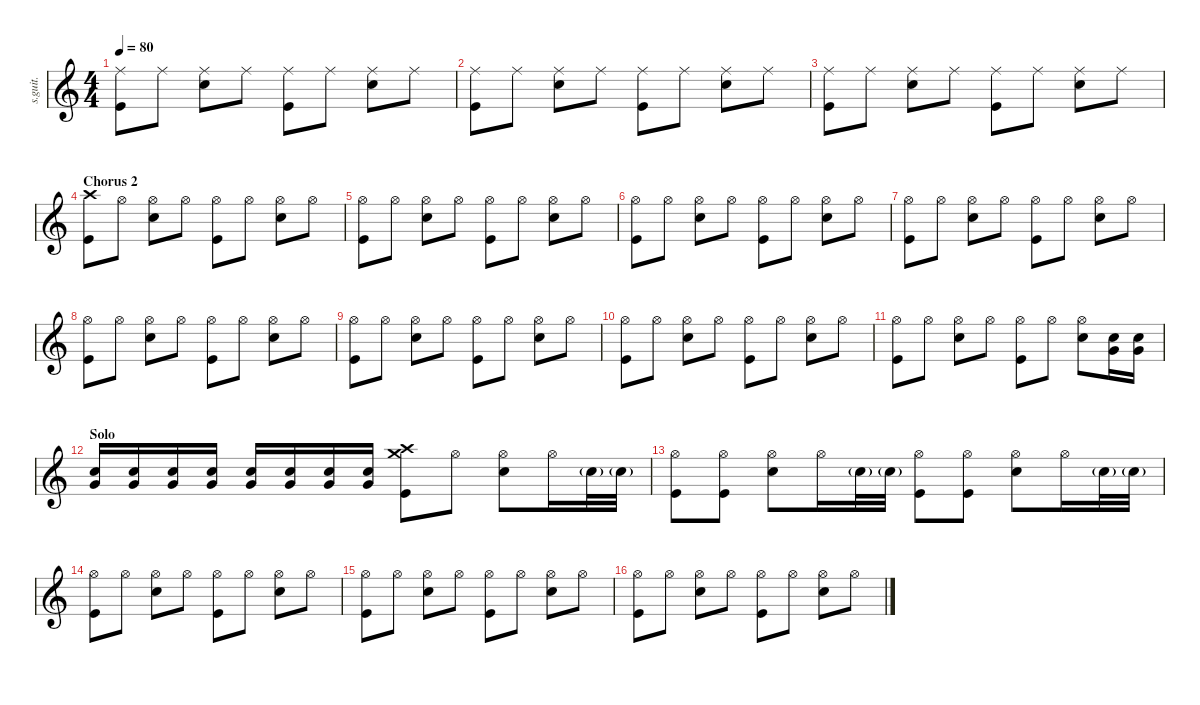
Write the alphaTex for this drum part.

\defaultSystemsLayout 4
\hideDynamics
\bracketExtendMode nobrackets
\track ("Drums (Wilson)" "s.guit.") {instrument percussion}
\staff {score}
\articulation defaults
\ts (4 4)
\tempo 80
\clef g2
\ks c
("Ride (middle)" "Kick (hit)").8{lyrics (0 "") lyrics (1 "") lyrics (2 "") lyrics (3 "") lyrics (4 "") dy f} "Ride (middle)".8{lyrics (0 "") lyrics (1 "") lyrics (2 "") lyrics (3 "") lyrics (4 "")} ("Ride (middle)" "Snare (hit) 2").8{lyrics (0 "") lyrics (1 "") lyrics (2 "") lyrics (3 "") lyrics (4 "")} "Ride (middle)".8{lyrics (0 "") lyrics (1 "") lyrics (2 "") lyrics (3 "") lyrics (4 "")} ("Ride (middle)" "Kick (hit)").8{lyrics (0 "") lyrics (1 "") lyrics (2 "") lyrics (3 "") lyrics (4 "")} "Ride (middle)".8{lyrics (0 "") lyrics (1 "") lyrics (2 "") lyrics (3 "") lyrics (4 "")} ("Ride (middle)" "Snare (hit) 2").8{lyrics (0 "") lyrics (1 "") lyrics (2 "") lyrics (3 "") lyrics (4 "")} "Ride (middle)".8{lyrics (0 "") lyrics (1 "") lyrics (2 "") lyrics (3 "") lyrics (4 "")} |
("Ride (middle)" "Kick (hit)").8{lyrics (0 "") lyrics (1 "") lyrics (2 "") lyrics (3 "") lyrics (4 "")} "Ride (middle)".8{lyrics (0 "") lyrics (1 "") lyrics (2 "") lyrics (3 "") lyrics (4 "")} ("Ride (middle)" "Snare (hit) 2").8{lyrics (0 "") lyrics (1 "") lyrics (2 "") lyrics (3 "") lyrics (4 "")} "Ride (middle)".8{lyrics (0 "") lyrics (1 "") lyrics (2 "") lyrics (3 "") lyrics (4 "")} ("Ride (middle)" "Kick (hit)").8{lyrics (0 "") lyrics (1 "") lyrics (2 "") lyrics (3 "") lyrics (4 "")} "Ride (middle)".8{lyrics (0 "") lyrics (1 "") lyrics (2 "") lyrics (3 "") lyrics (4 "")} ("Ride (middle)" "Snare (hit) 2").8{lyrics (0 "") lyrics (1 "") lyrics (2 "") lyrics (3 "") lyrics (4 "")} "Ride (middle)".8{lyrics (0 "") lyrics (1 "") lyrics (2 "") lyrics (3 "") lyrics (4 "")} |
("Ride (middle)" "Kick (hit)").8{lyrics (0 "") lyrics (1 "") lyrics (2 "") lyrics (3 "") lyrics (4 "")} "Ride (middle)".8{lyrics (0 "") lyrics (1 "") lyrics (2 "") lyrics (3 "") lyrics (4 "")} ("Ride (middle)" "Snare (hit) 2").8{lyrics (0 "") lyrics (1 "") lyrics (2 "") lyrics (3 "") lyrics (4 "")} "Ride (middle)".8{lyrics (0 "") lyrics (1 "") lyrics (2 "") lyrics (3 "") lyrics (4 "")} ("Ride (middle)" "Kick (hit)").8{lyrics (0 "") lyrics (1 "") lyrics (2 "") lyrics (3 "") lyrics (4 "")} "Ride (middle)".8{lyrics (0 "") lyrics (1 "") lyrics (2 "") lyrics (3 "") lyrics (4 "")} ("Ride (middle)" "Snare (hit) 2").8{lyrics (0 "") lyrics (1 "") lyrics (2 "") lyrics (3 "") lyrics (4 "")} "Ride (middle)".8{lyrics (0 "") lyrics (1 "") lyrics (2 "") lyrics (3 "") lyrics (4 "")} |
\section ("" "Chorus 2")
("Crash high (hit)" "Kick (hit)").8{lyrics (0 "") lyrics (1 "") lyrics (2 "") lyrics (3 "") lyrics (4 "")} "Hi-Hat (open)".8{lyrics (0 "") lyrics (1 "") lyrics (2 "") lyrics (3 "") lyrics (4 "")} ("Hi-Hat (open)" "Snare (hit) 2").8{lyrics (0 "") lyrics (1 "") lyrics (2 "") lyrics (3 "") lyrics (4 "")} "Hi-Hat (open)".8{lyrics (0 "") lyrics (1 "") lyrics (2 "") lyrics (3 "") lyrics (4 "")} ("Hi-Hat (open)" "Kick (hit)").8{lyrics (0 "") lyrics (1 "") lyrics (2 "") lyrics (3 "") lyrics (4 "")} "Hi-Hat (open)".8{lyrics (0 "") lyrics (1 "") lyrics (2 "") lyrics (3 "") lyrics (4 "")} ("Hi-Hat (open)" "Snare (hit) 2").8{lyrics (0 "") lyrics (1 "") lyrics (2 "") lyrics (3 "") lyrics (4 "")} "Hi-Hat (open)".8{lyrics (0 "") lyrics (1 "") lyrics (2 "") lyrics (3 "") lyrics (4 "")} |
("Hi-Hat (open)" "Kick (hit)").8{lyrics (0 "") lyrics (1 "") lyrics (2 "") lyrics (3 "") lyrics (4 "")} "Hi-Hat (open)".8{lyrics (0 "") lyrics (1 "") lyrics (2 "") lyrics (3 "") lyrics (4 "")} ("Hi-Hat (open)" "Snare (hit) 2").8{lyrics (0 "") lyrics (1 "") lyrics (2 "") lyrics (3 "") lyrics (4 "")} "Hi-Hat (open)".8{lyrics (0 "") lyrics (1 "") lyrics (2 "") lyrics (3 "") lyrics (4 "")} ("Hi-Hat (open)" "Kick (hit)").8{lyrics (0 "") lyrics (1 "") lyrics (2 "") lyrics (3 "") lyrics (4 "")} "Hi-Hat (open)".8{lyrics (0 "") lyrics (1 "") lyrics (2 "") lyrics (3 "") lyrics (4 "")} ("Hi-Hat (open)" "Snare (hit) 2").8{lyrics (0 "") lyrics (1 "") lyrics (2 "") lyrics (3 "") lyrics (4 "")} "Hi-Hat (open)".8{lyrics (0 "") lyrics (1 "") lyrics (2 "") lyrics (3 "") lyrics (4 "")} |
("Hi-Hat (open)" "Kick (hit)").8{lyrics (0 "") lyrics (1 "") lyrics (2 "") lyrics (3 "") lyrics (4 "")} "Hi-Hat (open)".8{lyrics (0 "") lyrics (1 "") lyrics (2 "") lyrics (3 "") lyrics (4 "")} ("Hi-Hat (open)" "Snare (hit) 2").8{lyrics (0 "") lyrics (1 "") lyrics (2 "") lyrics (3 "") lyrics (4 "")} "Hi-Hat (open)".8{lyrics (0 "") lyrics (1 "") lyrics (2 "") lyrics (3 "") lyrics (4 "")} ("Hi-Hat (open)" "Kick (hit)").8{lyrics (0 "") lyrics (1 "") lyrics (2 "") lyrics (3 "") lyrics (4 "")} "Hi-Hat (open)".8{lyrics (0 "") lyrics (1 "") lyrics (2 "") lyrics (3 "") lyrics (4 "")} ("Hi-Hat (open)" "Snare (hit) 2").8{lyrics (0 "") lyrics (1 "") lyrics (2 "") lyrics (3 "") lyrics (4 "")} "Hi-Hat (open)".8{lyrics (0 "") lyrics (1 "") lyrics (2 "") lyrics (3 "") lyrics (4 "")} |
("Hi-Hat (open)" "Kick (hit)").8{lyrics (0 "") lyrics (1 "") lyrics (2 "") lyrics (3 "") lyrics (4 "")} "Hi-Hat (open)".8{lyrics (0 "") lyrics (1 "") lyrics (2 "") lyrics (3 "") lyrics (4 "")} ("Hi-Hat (open)" "Snare (hit) 2").8{lyrics (0 "") lyrics (1 "") lyrics (2 "") lyrics (3 "") lyrics (4 "")} "Hi-Hat (open)".8{lyrics (0 "") lyrics (1 "") lyrics (2 "") lyrics (3 "") lyrics (4 "")} ("Hi-Hat (open)" "Kick (hit)").8{lyrics (0 "") lyrics (1 "") lyrics (2 "") lyrics (3 "") lyrics (4 "")} "Hi-Hat (open)".8{lyrics (0 "") lyrics (1 "") lyrics (2 "") lyrics (3 "") lyrics (4 "")} ("Hi-Hat (open)" "Snare (hit) 2").8{lyrics (0 "") lyrics (1 "") lyrics (2 "") lyrics (3 "") lyrics (4 "")} "Hi-Hat (open)".8{lyrics (0 "") lyrics (1 "") lyrics (2 "") lyrics (3 "") lyrics (4 "")} |
("Hi-Hat (open)" "Kick (hit)").8{lyrics (0 "") lyrics (1 "") lyrics (2 "") lyrics (3 "") lyrics (4 "")} "Hi-Hat (open)".8{lyrics (0 "") lyrics (1 "") lyrics (2 "") lyrics (3 "") lyrics (4 "")} ("Hi-Hat (open)" "Snare (hit) 2").8{lyrics (0 "") lyrics (1 "") lyrics (2 "") lyrics (3 "") lyrics (4 "")} "Hi-Hat (open)".8{lyrics (0 "") lyrics (1 "") lyrics (2 "") lyrics (3 "") lyrics (4 "")} ("Hi-Hat (open)" "Kick (hit)").8{lyrics (0 "") lyrics (1 "") lyrics (2 "") lyrics (3 "") lyrics (4 "")} "Hi-Hat (open)".8{lyrics (0 "") lyrics (1 "") lyrics (2 "") lyrics (3 "") lyrics (4 "")} ("Hi-Hat (open)" "Snare (hit) 2").8{lyrics (0 "") lyrics (1 "") lyrics (2 "") lyrics (3 "") lyrics (4 "")} "Hi-Hat (open)".8{lyrics (0 "") lyrics (1 "") lyrics (2 "") lyrics (3 "") lyrics (4 "")} |
("Hi-Hat (open)" "Kick (hit)").8{lyrics (0 "") lyrics (1 "") lyrics (2 "") lyrics (3 "") lyrics (4 "")} "Hi-Hat (open)".8{lyrics (0 "") lyrics (1 "") lyrics (2 "") lyrics (3 "") lyrics (4 "")} ("Hi-Hat (open)" "Snare (hit) 2").8{lyrics (0 "") lyrics (1 "") lyrics (2 "") lyrics (3 "") lyrics (4 "")} "Hi-Hat (open)".8{lyrics (0 "") lyrics (1 "") lyrics (2 "") lyrics (3 "") lyrics (4 "")} ("Hi-Hat (open)" "Kick (hit)").8{lyrics (0 "") lyrics (1 "") lyrics (2 "") lyrics (3 "") lyrics (4 "")} "Hi-Hat (open)".8{lyrics (0 "") lyrics (1 "") lyrics (2 "") lyrics (3 "") lyrics (4 "")} ("Hi-Hat (open)" "Snare (hit) 2").8{lyrics (0 "") lyrics (1 "") lyrics (2 "") lyrics (3 "") lyrics (4 "")} "Hi-Hat (open)".8{lyrics (0 "") lyrics (1 "") lyrics (2 "") lyrics (3 "") lyrics (4 "")} |
("Hi-Hat (open)" "Kick (hit)").8{lyrics (0 "") lyrics (1 "") lyrics (2 "") lyrics (3 "") lyrics (4 "")} "Hi-Hat (open)".8{lyrics (0 "") lyrics (1 "") lyrics (2 "") lyrics (3 "") lyrics (4 "")} ("Hi-Hat (open)" "Snare (hit) 2").8{lyrics (0 "") lyrics (1 "") lyrics (2 "") lyrics (3 "") lyrics (4 "")} "Hi-Hat (open)".8{lyrics (0 "") lyrics (1 "") lyrics (2 "") lyrics (3 "") lyrics (4 "")} ("Hi-Hat (open)" "Kick (hit)").8{lyrics (0 "") lyrics (1 "") lyrics (2 "") lyrics (3 "") lyrics (4 "")} "Hi-Hat (open)".8{lyrics (0 "") lyrics (1 "") lyrics (2 "") lyrics (3 "") lyrics (4 "")} ("Hi-Hat (open)" "Snare (hit) 2").8{lyrics (0 "") lyrics (1 "") lyrics (2 "") lyrics (3 "") lyrics (4 "")} "Hi-Hat (open)".8{lyrics (0 "") lyrics (1 "") lyrics (2 "") lyrics (3 "") lyrics (4 "")} |
("Hi-Hat (open)" "Kick (hit)").8{lyrics (0 "") lyrics (1 "") lyrics (2 "") lyrics (3 "") lyrics (4 "")} "Hi-Hat (open)".8{lyrics (0 "") lyrics (1 "") lyrics (2 "") lyrics (3 "") lyrics (4 "")} ("Hi-Hat (open)" "Snare (hit) 2").8{lyrics (0 "") lyrics (1 "") lyrics (2 "") lyrics (3 "") lyrics (4 "")} "Hi-Hat (open)".8{lyrics (0 "") lyrics (1 "") lyrics (2 "") lyrics (3 "") lyrics (4 "")} ("Hi-Hat (open)" "Kick (hit)").8{lyrics (0 "") lyrics (1 "") lyrics (2 "") lyrics (3 "") lyrics (4 "")} "Hi-Hat (open)".8{lyrics (0 "") lyrics (1 "") lyrics (2 "") lyrics (3 "") lyrics (4 "")} ("Hi-Hat (open)" "Snare (hit) 2").8{lyrics (0 "") lyrics (1 "") lyrics (2 "") lyrics (3 "") lyrics (4 "")} ("Very Low Tom (hit)" "Snare (hit) 2").16{lyrics (0 "") lyrics (1 "") lyrics (2 "") lyrics (3 "") lyrics (4 "") dy p} ("Very Low Tom (hit)" "Snare (hit) 2").16{lyrics (0 "") lyrics (1 "") lyrics (2 "") lyrics (3 "") lyrics (4 "")} |
\section ("" "Solo")
("Very Low Tom (hit)" "Snare (hit) 2").16{lyrics (0 "") lyrics (1 "") lyrics (2 "") lyrics (3 "") lyrics (4 "") dy mp} ("Very Low Tom (hit)" "Snare (hit) 2").16{lyrics (0 "") lyrics (1 "") lyrics (2 "") lyrics (3 "") lyrics (4 "")} ("Very Low Tom (hit)" "Snare (hit) 2").16{lyrics (0 "") lyrics (1 "") lyrics (2 "") lyrics (3 "") lyrics (4 "")} ("Very Low Tom (hit)" "Snare (hit) 2").16{lyrics (0 "") lyrics (1 "") lyrics (2 "") lyrics (3 "") lyrics (4 "")} ("Very Low Tom (hit)" "Snare (hit) 2").16{lyrics (0 "") lyrics (1 "") lyrics (2 "") lyrics (3 "") lyrics (4 "") dy mf} ("Very Low Tom (hit)" "Snare (hit) 2").16{lyrics (0 "") lyrics (1 "") lyrics (2 "") lyrics (3 "") lyrics (4 "")} ("Very Low Tom (hit)" "Snare (hit) 2").16{lyrics (0 "") lyrics (1 "") lyrics (2 "") lyrics (3 "") lyrics (4 "") dy f} ("Very Low Tom (hit)" "Snare (hit) 2").16{lyrics (0 "") lyrics (1 "") lyrics (2 "") lyrics (3 "") lyrics (4 "")} ("Crash medium (hit)" "Crash high (hit)" "Kick (hit)").8{lyrics (0 "") lyrics (1 "") lyrics (2 "") lyrics (3 "") lyrics (4 "")} "Hi-Hat (open)".8{lyrics (0 "") lyrics (1 "") lyrics (2 "") lyrics (3 "") lyrics (4 "")} ("Hi-Hat (open)" "Snare (hit) 2").8{lyrics (0 "") lyrics (1 "") lyrics (2 "") lyrics (3 "") lyrics (4 "")} "Hi-Hat (open)".16{lyrics (0 "") lyrics (1 "") lyrics (2 "") lyrics (3 "") lyrics (4 "")} "Snare (hit) 2"{g}.32{lyrics (0 "") lyrics (1 "") lyrics (2 "") lyrics (3 "") lyrics (4 "") dy pp} "Snare (hit) 2"{g}.32{lyrics (0 "") lyrics (1 "") lyrics (2 "") lyrics (3 "") lyrics (4 "")} |
("Hi-Hat (open)" "Kick (hit)").8{lyrics (0 "") lyrics (1 "") lyrics (2 "") lyrics (3 "") lyrics (4 "") dy f} ("Hi-Hat (open)" "Kick (hit)").8{lyrics (0 "") lyrics (1 "") lyrics (2 "") lyrics (3 "") lyrics (4 "")} ("Hi-Hat (open)" "Snare (hit) 2").8{lyrics (0 "") lyrics (1 "") lyrics (2 "") lyrics (3 "") lyrics (4 "")} "Hi-Hat (open)".16{lyrics (0 "") lyrics (1 "") lyrics (2 "") lyrics (3 "") lyrics (4 "")} "Snare (hit) 2"{g}.32{lyrics (0 "") lyrics (1 "") lyrics (2 "") lyrics (3 "") lyrics (4 "") dy pp} "Snare (hit) 2"{g}.32{lyrics (0 "") lyrics (1 "") lyrics (2 "") lyrics (3 "") lyrics (4 "")} ("Hi-Hat (open)" "Kick (hit)").8{lyrics (0 "") lyrics (1 "") lyrics (2 "") lyrics (3 "") lyrics (4 "") dy f} ("Hi-Hat (open)" "Kick (hit)").8{lyrics (0 "") lyrics (1 "") lyrics (2 "") lyrics (3 "") lyrics (4 "")} ("Hi-Hat (open)" "Snare (hit) 2").8{lyrics (0 "") lyrics (1 "") lyrics (2 "") lyrics (3 "") lyrics (4 "")} "Hi-Hat (open)".16{lyrics (0 "") lyrics (1 "") lyrics (2 "") lyrics (3 "") lyrics (4 "")} "Snare (hit) 2"{g}.32{lyrics (0 "") lyrics (1 "") lyrics (2 "") lyrics (3 "") lyrics (4 "") dy pp} "Snare (hit) 2"{g}.32{lyrics (0 "") lyrics (1 "") lyrics (2 "") lyrics (3 "") lyrics (4 "")} |
("Hi-Hat (open)" "Kick (hit)").8{lyrics (0 "") lyrics (1 "") lyrics (2 "") lyrics (3 "") lyrics (4 "") dy f} "Hi-Hat (open)".8{lyrics (0 "") lyrics (1 "") lyrics (2 "") lyrics (3 "") lyrics (4 "")} ("Hi-Hat (open)" "Snare (hit) 2").8{lyrics (0 "") lyrics (1 "") lyrics (2 "") lyrics (3 "") lyrics (4 "")} "Hi-Hat (open)".8{lyrics (0 "") lyrics (1 "") lyrics (2 "") lyrics (3 "") lyrics (4 "")} ("Hi-Hat (open)" "Kick (hit)").8{lyrics (0 "") lyrics (1 "") lyrics (2 "") lyrics (3 "") lyrics (4 "")} "Hi-Hat (open)".8{lyrics (0 "") lyrics (1 "") lyrics (2 "") lyrics (3 "") lyrics (4 "")} ("Hi-Hat (open)" "Snare (hit) 2").8{lyrics (0 "") lyrics (1 "") lyrics (2 "") lyrics (3 "") lyrics (4 "")} "Hi-Hat (open)".8{lyrics (0 "") lyrics (1 "") lyrics (2 "") lyrics (3 "") lyrics (4 "")} |
("Hi-Hat (open)" "Kick (hit)").8{lyrics (0 "") lyrics (1 "") lyrics (2 "") lyrics (3 "") lyrics (4 "")} "Hi-Hat (open)".8{lyrics (0 "") lyrics (1 "") lyrics (2 "") lyrics (3 "") lyrics (4 "")} ("Hi-Hat (open)" "Snare (hit) 2").8{lyrics (0 "") lyrics (1 "") lyrics (2 "") lyrics (3 "") lyrics (4 "")} "Hi-Hat (open)".8{lyrics (0 "") lyrics (1 "") lyrics (2 "") lyrics (3 "") lyrics (4 "")} ("Hi-Hat (open)" "Kick (hit)").8{lyrics (0 "") lyrics (1 "") lyrics (2 "") lyrics (3 "") lyrics (4 "")} "Hi-Hat (open)".8{lyrics (0 "") lyrics (1 "") lyrics (2 "") lyrics (3 "") lyrics (4 "")} ("Hi-Hat (open)" "Snare (hit) 2").8{lyrics (0 "") lyrics (1 "") lyrics (2 "") lyrics (3 "") lyrics (4 "")} "Hi-Hat (open)".8{lyrics (0 "") lyrics (1 "") lyrics (2 "") lyrics (3 "") lyrics (4 "")} |
("Hi-Hat (open)" "Kick (hit)").8{lyrics (0 "") lyrics (1 "") lyrics (2 "") lyrics (3 "") lyrics (4 "")} "Hi-Hat (open)".8{lyrics (0 "") lyrics (1 "") lyrics (2 "") lyrics (3 "") lyrics (4 "")} ("Hi-Hat (open)" "Snare (hit) 2").8{lyrics (0 "") lyrics (1 "") lyrics (2 "") lyrics (3 "") lyrics (4 "")} "Hi-Hat (open)".8{lyrics (0 "") lyrics (1 "") lyrics (2 "") lyrics (3 "") lyrics (4 "")} ("Hi-Hat (open)" "Kick (hit)").8{lyrics (0 "") lyrics (1 "") lyrics (2 "") lyrics (3 "") lyrics (4 "")} "Hi-Hat (open)".8{lyrics (0 "") lyrics (1 "") lyrics (2 "") lyrics (3 "") lyrics (4 "")} ("Hi-Hat (open)" "Snare (hit) 2").8{lyrics (0 "") lyrics (1 "") lyrics (2 "") lyrics (3 "") lyrics (4 "")} "Hi-Hat (open)".8{lyrics (0 "") lyrics (1 "") lyrics (2 "") lyrics (3 "") lyrics (4 "")}
